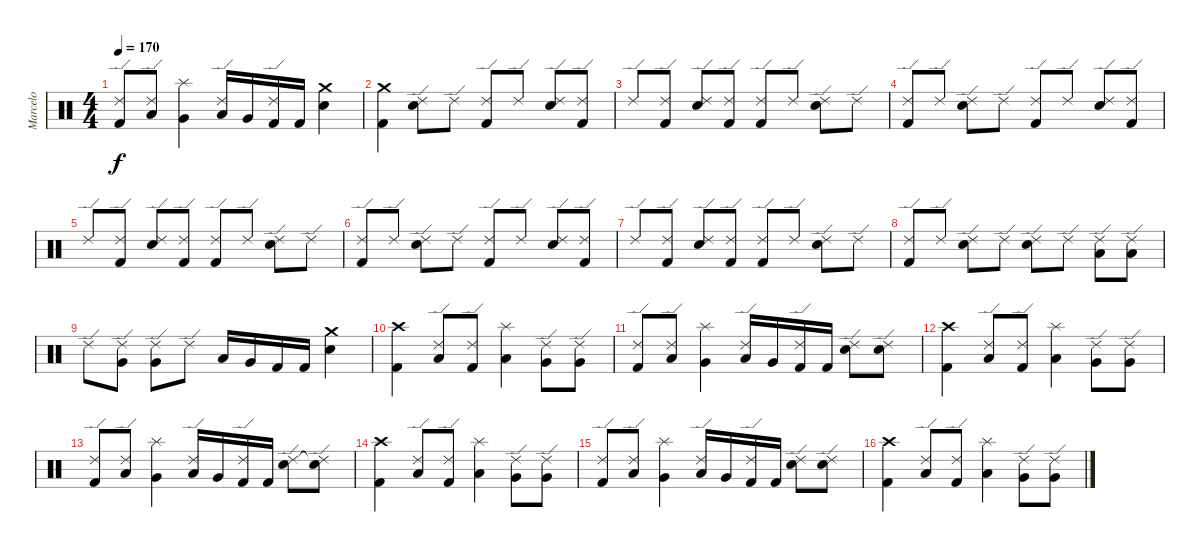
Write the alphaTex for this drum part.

\track ("Marcelo" "Marcelo") {instrument percussion}
\staff {score}
\articulation defaults
\ts (4 4)
\tempo 170
\clef neutral
\ks c
("Ride (edge) 2" "Kick (hit) 2").8{dy f} ("Ride (edge) 2" "Low Tom (hit)").8 ("Splash (hit)" "Very Low Tom (hit)").4 ("Ride (edge) 2" "Low Tom (hit)").16 "Very Low Tom (hit)".16 ("Ride (edge) 2" "Kick (hit) 2").16 "Kick (hit) 2".16 ("Crash medium (hit)" "Electric Snare (hit)").4 |
("Crash medium (hit)" "Kick (hit) 2").4 ("Ride (edge) 2" "Electric Snare (hit)").8 "Ride (edge) 2".8 ("Ride (edge) 2" "Kick (hit) 2").8 "Ride (edge) 2".8 ("Ride (edge) 2" "Electric Snare (hit)").8 ("Ride (edge) 2" "Kick (hit) 2").8 |
"Ride (edge) 2".8 ("Ride (edge) 2" "Kick (hit) 2").8 ("Ride (edge) 2" "Electric Snare (hit)").8 ("Ride (edge) 2" "Kick (hit) 2").8 ("Ride (edge) 2" "Kick (hit) 2").8 "Ride (edge) 2".8 ("Ride (edge) 2" "Electric Snare (hit)").8 "Ride (edge) 2".8 |
("Ride (edge) 2" "Kick (hit) 2").8 "Ride (edge) 2".8 ("Ride (edge) 2" "Electric Snare (hit)").8 "Ride (edge) 2".8 ("Ride (edge) 2" "Kick (hit) 2").8 "Ride (edge) 2".8 ("Ride (edge) 2" "Electric Snare (hit)").8 ("Ride (edge) 2" "Kick (hit) 2").8 |
"Ride (edge) 2".8 ("Ride (edge) 2" "Kick (hit) 2").8 ("Ride (edge) 2" "Electric Snare (hit)").8 ("Ride (edge) 2" "Kick (hit) 2").8 ("Ride (edge) 2" "Kick (hit) 2").8 "Ride (edge) 2".8 ("Ride (edge) 2" "Electric Snare (hit)").8 "Ride (edge) 2".8 |
("Ride (edge) 2" "Kick (hit) 2").8 "Ride (edge) 2".8 ("Ride (edge) 2" "Electric Snare (hit)").8 "Ride (edge) 2".8 ("Ride (edge) 2" "Kick (hit) 2").8 "Ride (edge) 2".8 ("Ride (edge) 2" "Electric Snare (hit)").8 ("Ride (edge) 2" "Kick (hit) 2").8 |
"Ride (edge) 2".8 ("Ride (edge) 2" "Kick (hit) 2").8 ("Ride (edge) 2" "Electric Snare (hit)").8 ("Ride (edge) 2" "Kick (hit) 2").8 ("Ride (edge) 2" "Kick (hit) 2").8 "Ride (edge) 2".8 ("Ride (edge) 2" "Electric Snare (hit)").8 "Ride (edge) 2".8 |
("Ride (edge) 2" "Kick (hit) 2").8 "Ride (edge) 2".8 ("Ride (edge) 2" "Electric Snare (hit)").8 "Ride (edge) 2".8 ("Ride (edge) 2" "Electric Snare (hit)").8 "Ride (edge) 2".8 ("Ride (edge) 2" "Low Tom (hit)").8 ("Ride (edge) 2" "Low Tom (hit)").8 |
"Ride (edge) 2".8 ("Ride (edge) 2" "Very Low Tom (hit)").8 ("Ride (edge) 2" "Very Low Tom (hit)").8 "Ride (edge) 2".8 "Low Tom (hit)".16 "Very Low Tom (hit)".16 "Kick (hit) 2".16 "Kick (hit) 2".16 ("Crash medium (hit)" "Electric Snare (hit)").4 |
("Crash high (hit)" "Kick (hit) 2").4 ("Ride (edge) 2" "Low Tom (hit)").8 ("Ride (edge) 2" "Kick (hit) 2").8 ("Splash (hit)" "Low Tom (hit)").4 ("Ride (edge) 2" "Very Low Tom (hit)").8 ("Ride (edge) 2" "Very Low Tom (hit)").8 |
("Ride (edge) 2" "Kick (hit) 2").8 ("Ride (edge) 2" "Low Tom (hit)").8 ("Splash (hit)" "Very Low Tom (hit)").4 ("Ride (edge) 2" "Low Tom (hit)").16 "Very Low Tom (hit)".16 ("Ride (edge) 2" "Kick (hit) 2").16 "Kick (hit) 2".16 ("Ride (edge) 2" "Electric Snare (hit)").8 ("Ride (edge) 2" "Electric Snare (hit)").8 |
("Crash high (hit)" "Kick (hit) 2").4 ("Ride (edge) 2" "Low Tom (hit)").8 ("Ride (edge) 2" "Kick (hit) 2").8 ("Splash (hit)" "Low Tom (hit)").4 ("Ride (edge) 2" "Very Low Tom (hit)").8 ("Ride (edge) 2" "Very Low Tom (hit)").8 |
("Ride (edge) 2" "Kick (hit) 2").8 ("Ride (edge) 2" "Low Tom (hit)").8 ("Splash (hit)" "Very Low Tom (hit)").4 ("Ride (edge) 2" "Low Tom (hit)").16 "Very Low Tom (hit)".16 ("Ride (edge) 2" "Kick (hit) 2").16 "Kick (hit) 2".16 ("Ride (edge) 2" "Electric Snare (hit)").8 ("Ride (edge) 2" "Snare (hit)"{t}).8 |
("Crash high (hit)" "Kick (hit) 2").4 ("Ride (edge) 2" "Low Tom (hit)").8 ("Ride (edge) 2" "Kick (hit) 2").8 ("Splash (hit)" "Low Tom (hit)").4 ("Ride (edge) 2" "Very Low Tom (hit)").8 ("Ride (edge) 2" "Very Low Tom (hit)").8 |
("Ride (edge) 2" "Kick (hit) 2").8 ("Ride (edge) 2" "Low Tom (hit)").8 ("Splash (hit)" "Very Low Tom (hit)").4 ("Ride (edge) 2" "Low Tom (hit)").16 "Very Low Tom (hit)".16 ("Ride (edge) 2" "Kick (hit) 2").16 "Kick (hit) 2".16 ("Ride (edge) 2" "Electric Snare (hit)").8 ("Ride (edge) 2" "Electric Snare (hit)").8 |
("Crash high (hit)" "Kick (hit) 2").4 ("Ride (edge) 2" "Low Tom (hit)").8 ("Ride (edge) 2" "Kick (hit) 2").8 ("Splash (hit)" "Low Tom (hit)").4 ("Ride (edge) 2" "Very Low Tom (hit)").8 ("Ride (edge) 2" "Very Low Tom (hit)").8
